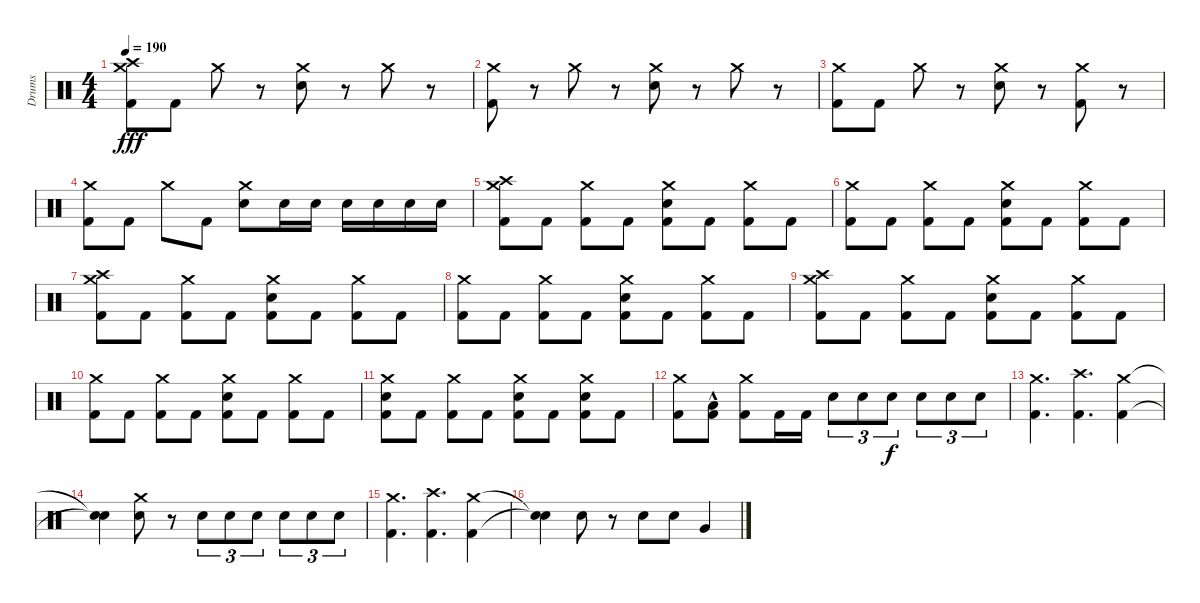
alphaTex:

\track ("Drums" "Drums") {instrument percussion}
\staff {score}
\articulation defaults
\ts (4 4)
\tempo 190
\clef neutral
\ks c
("Crash medium (hit)" "Crash high (hit)" "Kick (hit) 2").8{dy fff} "Kick (hit) 2".8 "Crash medium (hit)".8 r.8 ("Crash medium (hit)" "Electric Snare (hit)").8 r.8 "Crash medium (hit)".8 r.8 |
("Crash medium (hit)" "Kick (hit) 2").8 r.8 "Crash medium (hit)".8 r.8 ("Crash medium (hit)" "Electric Snare (hit)").8 r.8 "Crash medium (hit)".8 r.8 |
("Crash medium (hit)" "Kick (hit) 2").8 "Kick (hit) 2".8 "Crash medium (hit)".8 r.8 ("Crash medium (hit)" "Electric Snare (hit)").8 r.8 ("Crash medium (hit)" "Kick (hit) 2").8 r.8 |
("Crash medium (hit)" "Kick (hit) 2").8 "Kick (hit) 2".8 "Crash medium (hit)".8 "Kick (hit) 2".8 ("Crash medium (hit)" "Electric Snare (hit)").8 "Electric Snare (hit)".16 "Electric Snare (hit)".16 "Electric Snare (hit)".16 "Electric Snare (hit)".16 "Electric Snare (hit)".16 "Electric Snare (hit)".16 |
("Crash medium (hit)" "Crash high (hit)" "Kick (hit) 2").8 "Kick (hit) 2".8 ("Crash medium (hit)" "Kick (hit) 2").8 "Kick (hit) 2".8 ("Crash medium (hit)" "Electric Snare (hit)" "Kick (hit) 2").8 "Kick (hit) 2".8 ("Crash medium (hit)" "Kick (hit) 2").8 "Kick (hit) 2".8 |
("Crash medium (hit)" "Kick (hit) 2").8 "Kick (hit) 2".8 ("Crash medium (hit)" "Kick (hit) 2").8 "Kick (hit) 2".8 ("Crash medium (hit)" "Electric Snare (hit)" "Kick (hit) 2").8 "Kick (hit) 2".8 ("Crash medium (hit)" "Kick (hit) 2").8 "Kick (hit) 2".8 |
("Crash medium (hit)" "Crash high (hit)" "Kick (hit) 2").8 "Kick (hit) 2".8 ("Crash medium (hit)" "Kick (hit) 2").8 "Kick (hit) 2".8 ("Crash medium (hit)" "Electric Snare (hit)" "Kick (hit) 2").8 "Kick (hit) 2".8 ("Crash medium (hit)" "Kick (hit) 2").8 "Kick (hit) 2".8 |
("Crash medium (hit)" "Kick (hit) 2").8 "Kick (hit) 2".8 ("Crash medium (hit)" "Kick (hit) 2").8 "Kick (hit) 2".8 ("Crash medium (hit)" "Electric Snare (hit)" "Kick (hit) 2").8 "Kick (hit) 2".8 ("Crash medium (hit)" "Kick (hit) 2").8 "Kick (hit) 2".8 |
("Crash medium (hit)" "Crash high (hit)" "Kick (hit) 2").8 "Kick (hit) 2".8 ("Crash medium (hit)" "Kick (hit) 2").8 "Kick (hit) 2".8 ("Crash medium (hit)" "Electric Snare (hit)" "Kick (hit) 2").8 "Kick (hit) 2".8 ("Crash medium (hit)" "Kick (hit) 2").8 "Kick (hit) 2".8 |
("Crash medium (hit)" "Kick (hit) 2").8 "Kick (hit) 2".8 ("Crash medium (hit)" "Kick (hit) 2").8 "Kick (hit) 2".8 ("Crash medium (hit)" "Electric Snare (hit)" "Kick (hit) 2").8 "Kick (hit) 2".8 ("Crash medium (hit)" "Kick (hit) 2").8 "Kick (hit) 2".8 |
("Crash medium (hit)" "Electric Snare (hit)" "Kick (hit) 2").8 "Kick (hit) 2".8 ("Crash medium (hit)" "Kick (hit) 2").8 "Kick (hit) 2".8 ("Crash medium (hit)" "Electric Snare (hit)" "Kick (hit) 2").8 "Kick (hit) 2".8 ("Crash medium (hit)" "Electric Snare (hit)" "Kick (hit) 2").8 "Kick (hit) 2".8 |
("Crash medium (hit)" "Kick (hit) 2").8 ("Low Tom (hit)"{hac} "Kick (hit) 2").8 ("Crash medium (hit)" "Kick (hit) 2").8 "Kick (hit) 2".16 "Kick (hit) 2".16 "Electric Snare (hit)".8{tu (3 2)} "Electric Snare (hit)".8{tu (3 2)} "Electric Snare (hit)".8{tu (3 2) dy f} "Electric Snare (hit)".8{tu (3 2)} "Electric Snare (hit)".8{tu (3 2)} "Electric Snare (hit)".8{tu (3 2)} |
("Crash medium (hit)" "Kick (hit) 2").4{d} ("Crash high (hit)" "Kick (hit) 2").4{d} ("Crash medium (hit)" "Kick (hit) 2").4 |
("Snare (hit)"{t} "Snare (hit)"{t}).4 ("Crash medium (hit)" "Electric Snare (hit)").8 r.8 "Electric Snare (hit)".8{tu (3 2)} "Electric Snare (hit)".8{tu (3 2)} "Electric Snare (hit)".8{tu (3 2)} "Electric Snare (hit)".8{tu (3 2)} "Electric Snare (hit)".8{tu (3 2)} "Electric Snare (hit)".8{tu (3 2)} |
("Crash medium (hit)" "Kick (hit) 2").4{d} ("Crash high (hit)" "Kick (hit) 2").4{d} ("Crash medium (hit)" "Kick (hit) 2").4 |
("Snare (hit)"{t} "Snare (hit)"{t}).4 "Electric Snare (hit)".8 r.8 "Electric Snare (hit)".8 "Electric Snare (hit)".8 "Very Low Tom (hit)".4
